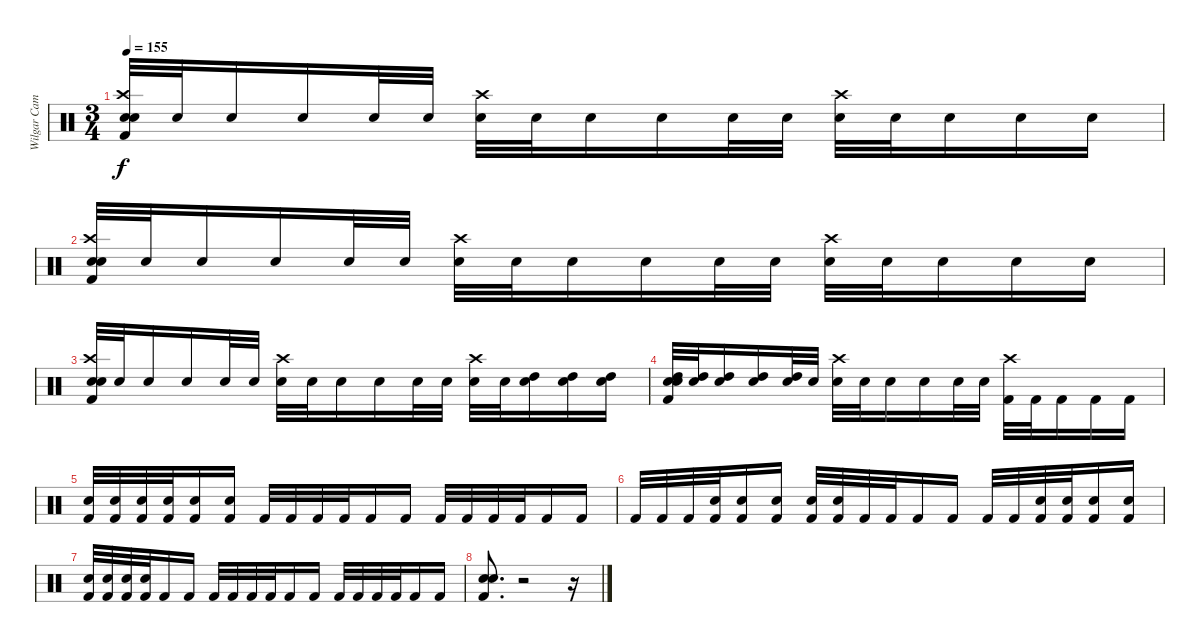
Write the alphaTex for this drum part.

\track ("Wilgar Campbell" "Wilgar Cam") {instrument percussion}
\staff {score}
\articulation defaults
\ts (3 4)
\tempo 155
\clef neutral
\ks c
("Kick (hit) 2" "Snare (hit) 2" "Crash high (hit)" "Electric Snare (hit)").32{dy f} "Electric Snare (hit)".32 "Electric Snare (hit)".16 "Electric Snare (hit)".16 "Electric Snare (hit)".32 "Electric Snare (hit)".32 ("Crash high (hit)" "Electric Snare (hit)").32 "Electric Snare (hit)".32 "Electric Snare (hit)".16 "Electric Snare (hit)".16 "Electric Snare (hit)".32 "Electric Snare (hit)".32 ("Crash high (hit)" "Electric Snare (hit)").32 "Electric Snare (hit)".32 "Electric Snare (hit)".16 "Electric Snare (hit)".16 "Electric Snare (hit)".16 |
("Kick (hit) 2" "Snare (hit) 2" "Crash high (hit)" "Electric Snare (hit)").32 "Electric Snare (hit)".32 "Electric Snare (hit)".16 "Electric Snare (hit)".16 "Electric Snare (hit)".32 "Electric Snare (hit)".32 ("Crash high (hit)" "Electric Snare (hit)").32 "Electric Snare (hit)".32 "Electric Snare (hit)".16 "Electric Snare (hit)".16 "Electric Snare (hit)".32 "Electric Snare (hit)".32 ("Crash high (hit)" "Electric Snare (hit)").32 "Electric Snare (hit)".32 "Electric Snare (hit)".16 "Electric Snare (hit)".16 "Electric Snare (hit)".16 |
("Kick (hit) 2" "Snare (hit) 2" "Crash high (hit)" "Electric Snare (hit)").32 "Electric Snare (hit)".32 "Electric Snare (hit)".16 "Snare (hit) 2".16 "Snare (hit) 2".32 "Snare (hit) 2".32 ("Crash high (hit)" "Snare (hit) 2").32 "Snare (hit) 2".32 "Snare (hit) 2".16 "Snare (hit) 2".16 "Snare (hit) 2".32 "Electric Snare (hit)".32 ("Crash high (hit)" "Electric Snare (hit)").32 "Electric Snare (hit)".32 ("High Tom (hit)" "Electric Snare (hit)").16 ("High Tom (hit)" "Electric Snare (hit)").16 ("High Tom (hit)" "Electric Snare (hit)").16 |
("Kick (hit) 2" "Snare (hit) 2" "High Tom (hit)" "Electric Snare (hit)").32 ("High Tom (hit)" "Electric Snare (hit)").32 ("High Tom (hit)" "Electric Snare (hit)").16 ("High Tom (hit)" "Electric Snare (hit)").16 ("High Tom (hit)" "Electric Snare (hit)").32 "Electric Snare (hit)".32 ("Crash high (hit)" "Electric Snare (hit)").32 "Snare (hit) 2".32 "Snare (hit) 2".16 "Snare (hit) 2".16 "Snare (hit) 2".32 "Electric Snare (hit)".32 ("Crash high (hit)" "Kick (hit) 2").32 "Kick (hit) 2".32 "Kick (hit) 2".16 "Kick (hit) 2".16 "Kick (hit) 2".16 |
("Electric Snare (hit)" "Kick (hit) 2").32 ("Electric Snare (hit)" "Kick (hit) 2").32 ("Electric Snare (hit)" "Kick (hit) 2").32 ("Electric Snare (hit)" "Kick (hit) 2").32 ("Electric Snare (hit)" "Kick (hit) 2").16 ("Electric Snare (hit)" "Kick (hit) 2").16 "Kick (hit) 2".32 "Kick (hit) 2".32 "Kick (hit) 2".32 "Kick (hit) 2".32 "Kick (hit) 2".16 "Kick (hit) 2".16 "Kick (hit) 2".32 "Kick (hit) 2".32 "Kick (hit) 2".32 "Kick (hit) 2".32 "Kick (hit) 2".16 "Kick (hit) 2".16 |
"Kick (hit) 2".32 "Kick (hit) 2".32 "Kick (hit) 2".32 ("Snare (hit) 2" "Kick (hit) 2").32 ("Snare (hit) 2" "Kick (hit) 2").16 ("Snare (hit) 2" "Kick (hit) 2").16 ("Snare (hit) 2" "Kick (hit) 2").32 ("Snare (hit) 2" "Kick (hit) 2").32 "Kick (hit) 2".32 "Kick (hit) 2".32 "Kick (hit) 2".16 "Kick (hit) 2".16 "Kick (hit) 2".32 "Kick (hit) 2".32 ("Electric Snare (hit)" "Kick (hit) 2").32 ("Electric Snare (hit)" "Kick (hit) 2").32 ("Electric Snare (hit)" "Kick (hit) 2").16 ("Electric Snare (hit)" "Kick (hit) 2").16 |
("Electric Snare (hit)" "Kick (hit) 2").32 ("Electric Snare (hit)" "Kick (hit) 2").32 ("Electric Snare (hit)" "Kick (hit) 2").32 ("Electric Snare (hit)" "Kick (hit) 2").32 "Kick (hit) 2".16 "Kick (hit) 2".16 "Kick (hit) 2".32 "Kick (hit) 2".32 "Kick (hit) 2".32 "Kick (hit) 2".32 "Kick (hit) 2".16 "Kick (hit) 2".16 "Kick (hit) 2".32 "Kick (hit) 2".32 "Kick (hit) 2".32 "Kick (hit) 2".32 "Kick (hit) 2".16 "Kick (hit) 2".16 |
("Snare (hit) 2" "Electric Snare (hit)" "Kick (hit) 2").8{d} r.2 r.16
